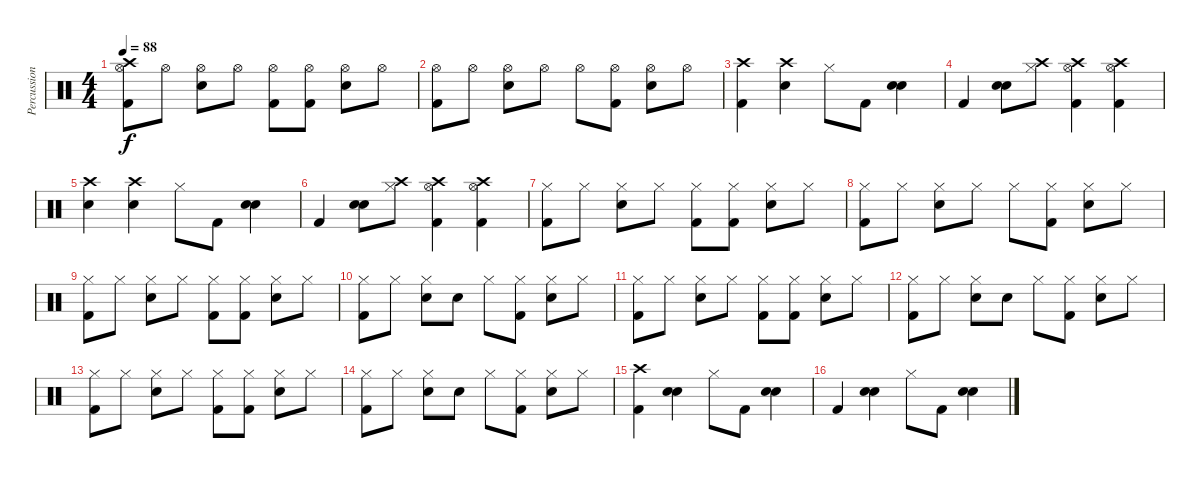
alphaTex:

\track ("Percussion" "Percussion") {instrument percussion}
\staff {score}
\articulation defaults
\ts (4 4)
\tempo 88
\clef neutral
\ks c
("Crash high (hit)" "Hi-Hat (open)" "Kick (hit) 2").8{dy f} "Hi-Hat (open)".8 ("Hi-Hat (open)" "Snare (hit) 2").8 "Hi-Hat (open)".8 ("Hi-Hat (open)" "Kick (hit) 2").8 ("Hi-Hat (open)" "Kick (hit) 2").8 ("Hi-Hat (open)" "Snare (hit) 2").8 "Hi-Hat (open)".8 |
("Hi-Hat (open)" "Kick (hit) 2").8 "Hi-Hat (open)".8 ("Hi-Hat (open)" "Snare (hit) 2").8 "Hi-Hat (open)".8 "Hi-Hat (open)".8 ("Hi-Hat (open)" "Kick (hit) 2").8 ("Hi-Hat (open)" "Snare (hit) 2").8 "Hi-Hat (open)".8 |
("Crash high (hit)" "Kick (hit) 2").4 ("Crash high (hit)" "Snare (hit) 2").4 "Hi-Hat (closed)".8 "Kick (hit) 2".8 ("Snare (hit) 2" "Snare (hit) 2").4 |
"Kick (hit) 2".4 ("Snare (hit) 2" "Snare (hit) 2").8 ("Crash high (hit)" "Hi-Hat (closed)").8 ("Crash high (hit)" "Hi-Hat (open)" "Kick (hit) 2").4 ("Crash high (hit)" "Hi-Hat (open)" "Kick (hit) 2").4 |
("Crash high (hit)" "Snare (hit) 2").4 ("Crash high (hit)" "Snare (hit) 2").4 "Hi-Hat (closed)".8 "Kick (hit) 2".8 ("Snare (hit) 2" "Snare (hit) 2").4 |
"Kick (hit) 2".4 ("Snare (hit) 2" "Snare (hit) 2").8 ("Crash high (hit)" "Hi-Hat (closed)").8 ("Crash high (hit)" "Hi-Hat (open)" "Kick (hit) 2").4 ("Crash high (hit)" "Hi-Hat (open)" "Kick (hit) 2").4 |
("Hi-Hat (closed)" "Kick (hit) 2").8 "Hi-Hat (closed)".8 ("Hi-Hat (closed)" "Snare (hit) 2").8 "Hi-Hat (closed)".8 ("Hi-Hat (closed)" "Kick (hit) 2").8 ("Hi-Hat (closed)" "Kick (hit) 2").8 ("Hi-Hat (closed)" "Snare (hit) 2").8 "Hi-Hat (closed)".8 |
("Hi-Hat (closed)" "Kick (hit) 2").8 "Hi-Hat (closed)".8 ("Hi-Hat (closed)" "Snare (hit) 2").8 "Hi-Hat (closed)".8 "Hi-Hat (closed)".8 ("Hi-Hat (closed)" "Kick (hit) 2").8 ("Hi-Hat (closed)" "Snare (hit) 2").8 "Hi-Hat (closed)".8 |
("Hi-Hat (closed)" "Kick (hit) 2").8 "Hi-Hat (closed)".8 ("Hi-Hat (closed)" "Snare (hit) 2").8 "Hi-Hat (closed)".8 ("Hi-Hat (closed)" "Kick (hit) 2").8 ("Hi-Hat (closed)" "Kick (hit) 2").8 ("Hi-Hat (closed)" "Snare (hit) 2").8 "Hi-Hat (closed)".8 |
("Hi-Hat (closed)" "Kick (hit) 2").8 "Hi-Hat (closed)".8 ("Hi-Hat (closed)" "Snare (hit) 2").8 "Snare (hit)".8 "Hi-Hat (closed)".8 ("Hi-Hat (closed)" "Kick (hit) 2").8 ("Hi-Hat (closed)" "Snare (hit) 2").8 "Hi-Hat (closed)".8 |
("Hi-Hat (closed)" "Kick (hit) 2").8 "Hi-Hat (closed)".8 ("Hi-Hat (closed)" "Snare (hit) 2").8 "Hi-Hat (closed)".8 ("Hi-Hat (closed)" "Kick (hit) 2").8 ("Hi-Hat (closed)" "Kick (hit) 2").8 ("Hi-Hat (closed)" "Snare (hit) 2").8 "Hi-Hat (closed)".8 |
("Hi-Hat (closed)" "Kick (hit) 2").8 "Hi-Hat (closed)".8 ("Hi-Hat (closed)" "Snare (hit) 2").8 "Snare (hit)".8 "Hi-Hat (closed)".8 ("Hi-Hat (closed)" "Kick (hit) 2").8 ("Hi-Hat (closed)" "Snare (hit) 2").8 "Hi-Hat (closed)".8 |
("Hi-Hat (closed)" "Kick (hit) 2").8 "Hi-Hat (closed)".8 ("Hi-Hat (closed)" "Snare (hit) 2").8 "Hi-Hat (closed)".8 ("Hi-Hat (closed)" "Kick (hit) 2").8 ("Hi-Hat (closed)" "Kick (hit) 2").8 ("Hi-Hat (closed)" "Snare (hit) 2").8 "Hi-Hat (closed)".8 |
("Hi-Hat (closed)" "Kick (hit) 2").8 "Hi-Hat (closed)".8 ("Hi-Hat (closed)" "Snare (hit) 2").8 "Snare (hit)".8 "Hi-Hat (closed)".8 ("Hi-Hat (closed)" "Kick (hit) 2").8 ("Hi-Hat (closed)" "Snare (hit) 2").8 "Hi-Hat (closed)".8 |
("Crash high (hit)" "Kick (hit) 2").4 ("Snare (hit) 2" "Snare (hit) 2").4 "Hi-Hat (closed)".8 "Kick (hit) 2".8 ("Snare (hit) 2" "Snare (hit) 2").4 |
"Kick (hit) 2".4 ("Snare (hit) 2" "Snare (hit) 2").4 "Hi-Hat (closed)".8 "Kick (hit) 2".8 ("Snare (hit) 2" "Snare (hit) 2").4
